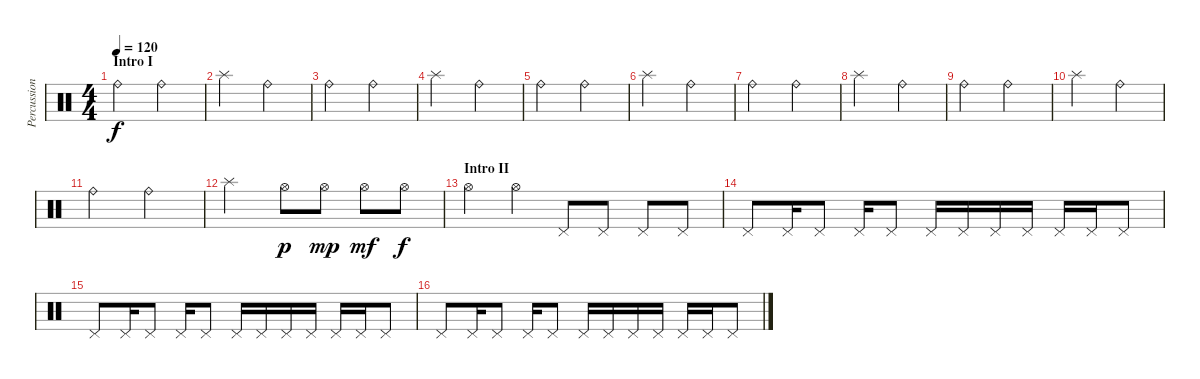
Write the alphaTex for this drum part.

\track ("Percussion" "Percussion") {instrument percussion}
\staff {score}
\articulation defaults
\ts (4 4)
\section ("" "Intro I")
\tempo 120
\clef neutral
\ks c "Ride (bell)".2{dy f} "Ride (bell)".2
|
"Splash (hit)".2 "Ride (bell)".2 |
"Ride (bell)".2 "Ride (bell)".2 |
"Splash (hit)".2 "Ride (bell)".2 |
"Ride (bell)".2 "Ride (bell)".2 |
"Splash (hit)".2 "Ride (bell)".2 |
"Ride (bell)".2 "Ride (bell)".2 |
"Splash (hit)".2 "Ride (bell)".2 |
"Ride (bell)".2 "Ride (bell)".2 |
"Splash (hit)".2 "Ride (bell)".2 |
"Ride (bell)".2 "Ride (bell)".2 |
"Splash (hit)".2 "Hi-Hat (open)".8{dy p} "Hi-Hat (open)".8{dy mp} "Hi-Hat (open)".8{dy mf} "Hi-Hat (open)".8{dy f} |
\section ("" "Intro II")
"Hi-Hat (open)".4 "Hi-Hat (open)".4 "Pedal Hi-Hat (hit)".8 "Pedal Hi-Hat (hit)".8 "Pedal Hi-Hat (hit)".8 "Pedal Hi-Hat (hit)".8 |
"Pedal Hi-Hat (hit)".8 "Pedal Hi-Hat (hit)".16 "Pedal Hi-Hat (hit)".8 "Pedal Hi-Hat (hit)".16 "Pedal Hi-Hat (hit)".8 "Pedal Hi-Hat (hit)".16 "Pedal Hi-Hat (hit)".16 "Pedal Hi-Hat (hit)".16 "Pedal Hi-Hat (hit)".16 "Pedal Hi-Hat (hit)".16 "Pedal Hi-Hat (hit)".16 "Pedal Hi-Hat (hit)".8 |
"Pedal Hi-Hat (hit)".8 "Pedal Hi-Hat (hit)".16 "Pedal Hi-Hat (hit)".8 "Pedal Hi-Hat (hit)".16 "Pedal Hi-Hat (hit)".8 "Pedal Hi-Hat (hit)".16 "Pedal Hi-Hat (hit)".16 "Pedal Hi-Hat (hit)".16 "Pedal Hi-Hat (hit)".16 "Pedal Hi-Hat (hit)".16 "Pedal Hi-Hat (hit)".16 "Pedal Hi-Hat (hit)".8 |
"Pedal Hi-Hat (hit)".8 "Pedal Hi-Hat (hit)".16 "Pedal Hi-Hat (hit)".8 "Pedal Hi-Hat (hit)".16 "Pedal Hi-Hat (hit)".8 "Pedal Hi-Hat (hit)".16 "Pedal Hi-Hat (hit)".16 "Pedal Hi-Hat (hit)".16 "Pedal Hi-Hat (hit)".16 "Pedal Hi-Hat (hit)".16 "Pedal Hi-Hat (hit)".16 "Pedal Hi-Hat (hit)".8
